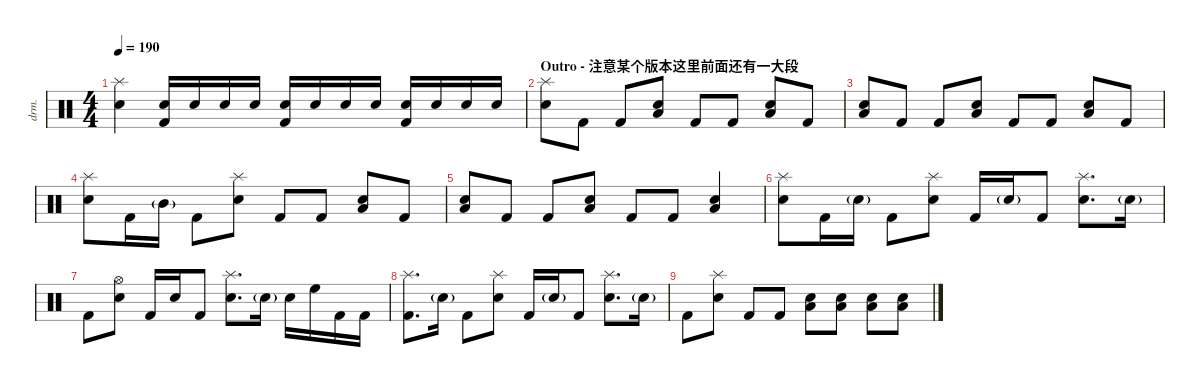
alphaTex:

\defaultSystemsLayout 4
\hideDynamics
\bracketExtendMode nobrackets
\track ("伊地知虹夏" "drm.") {instrument percussion}
\staff {score}
\articulation defaults
\ts (4 4)
\tempo 190
\clef neutral
\ks c
("Snare (hit) 2" "Splash (hit)").4{dy mf beam Down} ("Snare (hit) 2" "Kick (hit) 2").16{beam Up} "Snare (hit) 2".16{beam Up} "Snare (hit) 2".16{beam Up} "Snare (hit) 2".16{beam Up} ("Snare (hit) 2" "Kick (hit) 2").16{beam Up} "Snare (hit) 2".16{beam Up} "Snare (hit) 2".16{beam Up} "Snare (hit) 2".16{beam Up} ("Snare (hit) 2" "Kick (hit) 2").16{beam Up} "Snare (hit) 2".16{beam Up} "Snare (hit) 2".16{beam Up} "Snare (hit) 2".16{beam Up} |
\section ("" "Outro - 注意某个版本这里前面还有一大段")
("Splash (hit)" "Snare (hit) 2").8{beam Down} "Kick (hit) 2".8{beam Down} "Kick (hit) 2".8{beam Up} ("Low Tom (hit)" "Snare (hit) 2").8{beam Up} "Kick (hit) 2".8{beam Up} "Kick (hit) 2".8{beam Up} ("Low Tom (hit)" "Snare (hit) 2").8{beam Up} "Kick (hit) 2".8{beam Up} |
("Snare (hit) 2" "Low Tom (hit)").8{beam Up} "Kick (hit) 2".8{beam Up} "Kick (hit) 2".8{beam Up} ("Low Tom (hit)" "Snare (hit) 2").8{beam Up} "Kick (hit) 2".8{beam Up} "Kick (hit) 2".8{beam Up} ("Low Tom (hit)" "Snare (hit) 2").8{beam Up} "Kick (hit) 2".8{beam Up} |
("Snare (hit) 2" "Splash (hit)").8{beam Down} "Kick (hit) 2".16{beam Down} "Mid Tom (hit)"{g}.16{beam Down} "Kick (hit) 2".8{beam Down} ("Snare (hit) 2" "Splash (hit)").8{beam Down} "Kick (hit) 2".8{beam Up} "Kick (hit) 2".8{beam Up} ("Snare (hit) 2" "Low Tom (hit)").8{beam Up} "Kick (hit) 2".8{beam Up} |
("Snare (hit) 2" "Low Tom (hit)").8{beam Up} "Kick (hit) 2".8{beam Up} "Kick (hit) 2".8{beam Up} ("Low Tom (hit)" "Snare (hit) 2").8{beam Up} "Kick (hit) 2".8{beam Up} "Kick (hit) 2".8{beam Up} ("Low Tom (hit)" "Snare (hit) 2").4{beam Up} |
("Snare (hit) 2" "Splash (hit)").8{beam Down} "Kick (hit) 2".16{beam Down} "Snare (hit) 2"{g}.16{beam Down} "Kick (hit) 2".8{beam Down} ("Snare (hit) 2" "Splash (hit)").8{beam Down} "Kick (hit) 2".16{beam Up} "Snare (hit) 2"{g}.16{beam Up} "Kick (hit) 2".8{beam Up} ("Snare (hit) 2" "Splash (hit)").8{d beam Down} "Snare (hit) 2"{g}.16{beam Down} |
"Kick (hit) 2".8{beam Down} ("Snare (hit) 2" "Hi-Hat (open)").8{beam Down} "Kick (hit) 2".16{beam Up} "Snare (hit) 2".16{beam Up} "Kick (hit) 2".8{beam Up} ("Snare (hit) 2" "Splash (hit)").8{d beam Down} "Snare (hit) 2"{g}.16{beam Down} "Snare (hit) 2".16{beam Down} "High Floor Tom (hit)".16{beam Down} "Kick (hit) 2".16{beam Down} "Kick (hit) 2".16{beam Down} |
("Kick (hit) 2" "Splash (hit)").8{d beam Down} "Snare (hit) 2"{g}.16{beam Down} "Kick (hit) 2".8{beam Down} ("Snare (hit) 2" "Splash (hit)").8{beam Down} "Kick (hit) 2".16{beam Up} "Snare (hit) 2"{g}.16{beam Up} "Kick (hit) 2".8{beam Up} ("Snare (hit) 2" "Splash (hit)").8{d beam Down} "Snare (hit) 2"{g}.16{beam Down} |
"Kick (hit) 2".8{beam Down} ("Snare (hit) 2" "Splash (hit)").8{beam Down} "Kick (hit) 2".8{beam Up} "Kick (hit) 2".8{beam Up} ("Low Tom (hit)" "Snare (hit) 2").8{beam Down} ("Snare (hit) 2" "Low Tom (hit)").8{beam Down} ("Low Tom (hit)" "Snare (hit) 2").8{beam Down} ("Snare (hit) 2" "Low Tom (hit)").8{beam Down}
